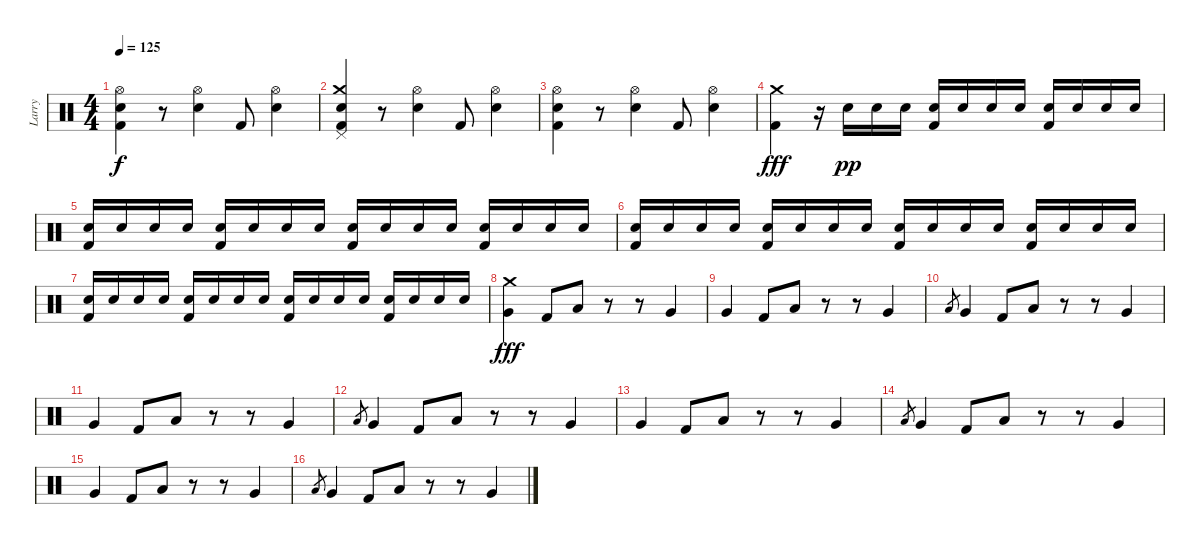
\track ("Larry" "Larry") {instrument percussion}
\staff {score}
\articulation defaults
\ts (4 4)
\tempo 125
\clef neutral
\ks c
("Hi-Hat (open)" "Electric Snare (hit)" "Kick (hit) 2").4{dy f} r.8 ("Hi-Hat (open)" "Electric Snare (hit)").4 "Kick (hit) 2".8 ("Hi-Hat (open)" "Electric Snare (hit)").4 |
("Crash medium (hit)" "Electric Snare (hit)" "Kick (hit) 2" "Pedal Hi-Hat (hit)").4 r.8 ("Hi-Hat (open)" "Electric Snare (hit)").4 "Kick (hit) 2".8 ("Hi-Hat (open)" "Electric Snare (hit)").4 |
("Hi-Hat (open)" "Electric Snare (hit)" "Kick (hit) 2").4 r.8 ("Hi-Hat (open)" "Electric Snare (hit)").4 "Kick (hit) 2".8 ("Hi-Hat (open)" "Electric Snare (hit)").4 |
("Crash medium (hit)" "Kick (hit) 2").4{dy fff volume 6} r.16 "Electric Snare (hit)".16{dy pp} "Electric Snare (hit)".16 "Electric Snare (hit)".16 ("Kick (hit) 2" "Electric Snare (hit)").16 "Electric Snare (hit)".16 "Electric Snare (hit)".16 "Electric Snare (hit)".16 ("Kick (hit) 2" "Electric Snare (hit)").16 "Electric Snare (hit)".16 "Electric Snare (hit)".16 "Electric Snare (hit)".16 |
("Kick (hit) 2" "Electric Snare (hit)").16{volume 8} "Electric Snare (hit)".16 "Electric Snare (hit)".16 "Electric Snare (hit)".16 ("Kick (hit) 2" "Electric Snare (hit)").16 "Electric Snare (hit)".16 "Electric Snare (hit)".16 "Electric Snare (hit)".16 ("Kick (hit) 2" "Electric Snare (hit)").16 "Electric Snare (hit)".16 "Electric Snare (hit)".16 "Electric Snare (hit)".16 ("Kick (hit) 2" "Electric Snare (hit)").16 "Electric Snare (hit)".16 "Electric Snare (hit)".16 "Electric Snare (hit)".16 |
("Kick (hit) 2" "Electric Snare (hit)").16{volume 10} "Electric Snare (hit)".16 "Electric Snare (hit)".16 "Electric Snare (hit)".16 ("Kick (hit) 2" "Electric Snare (hit)").16 "Electric Snare (hit)".16 "Electric Snare (hit)".16 "Electric Snare (hit)".16 ("Kick (hit) 2" "Electric Snare (hit)").16 "Electric Snare (hit)".16 "Electric Snare (hit)".16 "Electric Snare (hit)".16 ("Kick (hit) 2" "Electric Snare (hit)").16 "Electric Snare (hit)".16 "Electric Snare (hit)".16 "Electric Snare (hit)".16 |
("Kick (hit) 2" "Electric Snare (hit)").16{volume 13} "Electric Snare (hit)".16 "Electric Snare (hit)".16 "Electric Snare (hit)".16 ("Kick (hit) 2" "Electric Snare (hit)").16 "Electric Snare (hit)".16 "Electric Snare (hit)".16 "Electric Snare (hit)".16 ("Kick (hit) 2" "Electric Snare (hit)").16 "Electric Snare (hit)".16 "Electric Snare (hit)".16 "Electric Snare (hit)".16 ("Kick (hit) 2" "Electric Snare (hit)").16 "Electric Snare (hit)".16 "Electric Snare (hit)".16 "Electric Snare (hit)".16 |
("Crash medium (hit)" "Very Low Tom (hit)").4{dy fff volume 16} "Kick (hit) 2".8 "Low Tom (hit)".8 r.8 r.8 "Very Low Tom (hit)".4 |
"Very Low Tom (hit)".4{volume 16} "Kick (hit) 2".8 "Low Tom (hit)".8 r.8 r.8 "Very Low Tom (hit)".4 |
"Low Tom (hit)".8{gr} "Very Low Tom (hit)".4{volume 16} "Kick (hit) 2".8 "Low Tom (hit)".8 r.8 r.8 "Very Low Tom (hit)".4 |
"Very Low Tom (hit)".4{volume 16} "Kick (hit) 2".8 "Low Tom (hit)".8 r.8 r.8 "Very Low Tom (hit)".4 |
"Low Tom (hit)".8{gr} "Very Low Tom (hit)".4{volume 16} "Kick (hit) 2".8 "Low Tom (hit)".8 r.8 r.8 "Very Low Tom (hit)".4 |
"Very Low Tom (hit)".4{volume 16} "Kick (hit) 2".8 "Low Tom (hit)".8 r.8 r.8 "Very Low Tom (hit)".4 |
"Low Tom (hit)".8{gr} "Very Low Tom (hit)".4{volume 16} "Kick (hit) 2".8 "Low Tom (hit)".8 r.8 r.8 "Very Low Tom (hit)".4 |
"Very Low Tom (hit)".4{volume 16} "Kick (hit) 2".8 "Low Tom (hit)".8 r.8 r.8 "Very Low Tom (hit)".4 |
"Low Tom (hit)".8{gr} "Very Low Tom (hit)".4{volume 16} "Kick (hit) 2".8 "Low Tom (hit)".8 r.8 r.8 "Very Low Tom (hit)".4
